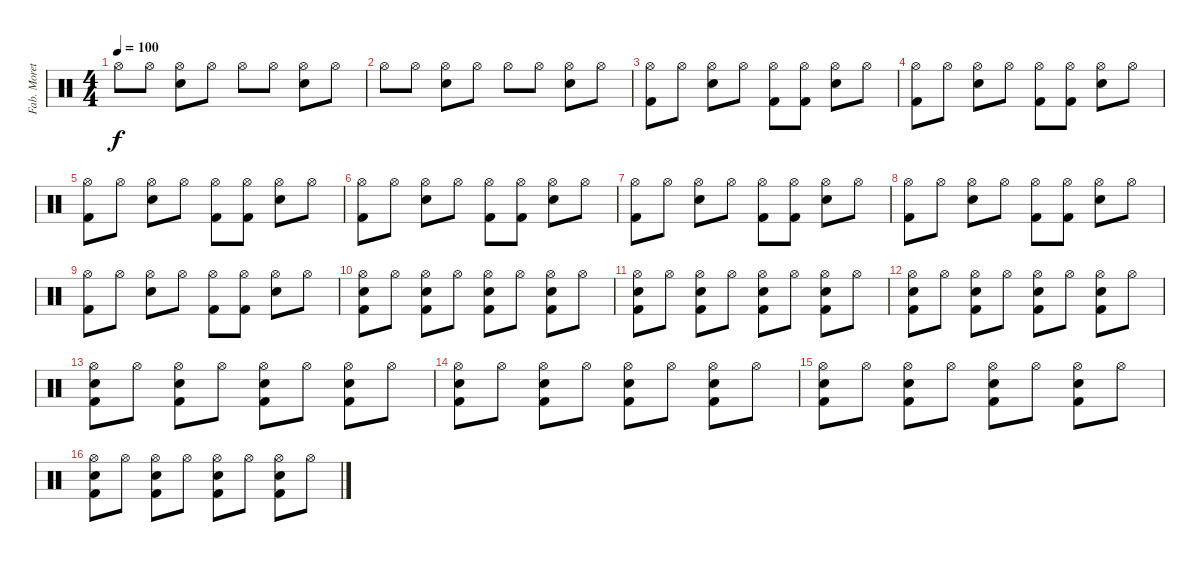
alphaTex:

\track ("Fab. Moretti" "Fab. Moret") {instrument percussion}
\staff {score}
\articulation defaults
\ts (4 4)
\tempo 100
\clef neutral
\ks c "Hi-Hat (open)".8{dy f} "Hi-Hat (open)".8
("Hi-Hat (open)" "Electric Snare (hit)").8 "Hi-Hat (open)".8 "Hi-Hat (open)".8 "Hi-Hat (open)".8 ("Hi-Hat (open)" "Electric Snare (hit)").8 "Hi-Hat (open)".8 |
"Hi-Hat (open)".8 "Hi-Hat (open)".8 ("Hi-Hat (open)" "Electric Snare (hit)").8 "Hi-Hat (open)".8 "Hi-Hat (open)".8 "Hi-Hat (open)".8 ("Hi-Hat (open)" "Electric Snare (hit)").8 "Hi-Hat (open)".8 |
("Hi-Hat (open)" "Kick (hit) 2").8 "Hi-Hat (open)".8 ("Hi-Hat (open)" "Electric Snare (hit)").8 "Hi-Hat (open)".8 ("Hi-Hat (open)" "Kick (hit) 2").8 ("Hi-Hat (open)" "Kick (hit) 2").8 ("Hi-Hat (open)" "Electric Snare (hit)").8 "Hi-Hat (open)".8 |
("Hi-Hat (open)" "Kick (hit) 2").8 "Hi-Hat (open)".8 ("Hi-Hat (open)" "Electric Snare (hit)").8 "Hi-Hat (open)".8 ("Hi-Hat (open)" "Kick (hit) 2").8 ("Hi-Hat (open)" "Kick (hit) 2").8 ("Hi-Hat (open)" "Electric Snare (hit)").8 "Hi-Hat (open)".8 |
("Hi-Hat (open)" "Kick (hit) 2").8 "Hi-Hat (open)".8 ("Hi-Hat (open)" "Electric Snare (hit)").8 "Hi-Hat (open)".8 ("Hi-Hat (open)" "Kick (hit) 2").8 ("Hi-Hat (open)" "Kick (hit) 2").8 ("Hi-Hat (open)" "Electric Snare (hit)").8 "Hi-Hat (open)".8 |
("Hi-Hat (open)" "Kick (hit) 2").8 "Hi-Hat (open)".8 ("Hi-Hat (open)" "Electric Snare (hit)").8 "Hi-Hat (open)".8 ("Hi-Hat (open)" "Kick (hit) 2").8 ("Hi-Hat (open)" "Kick (hit) 2").8 ("Hi-Hat (open)" "Electric Snare (hit)").8 "Hi-Hat (open)".8 |
("Hi-Hat (open)" "Kick (hit) 2").8 "Hi-Hat (open)".8 ("Hi-Hat (open)" "Electric Snare (hit)").8 "Hi-Hat (open)".8 ("Hi-Hat (open)" "Kick (hit) 2").8 ("Hi-Hat (open)" "Kick (hit) 2").8 ("Hi-Hat (open)" "Electric Snare (hit)").8 "Hi-Hat (open)".8 |
("Hi-Hat (open)" "Kick (hit) 2").8 "Hi-Hat (open)".8 ("Hi-Hat (open)" "Electric Snare (hit)").8 "Hi-Hat (open)".8 ("Hi-Hat (open)" "Kick (hit) 2").8 ("Hi-Hat (open)" "Kick (hit) 2").8 ("Hi-Hat (open)" "Electric Snare (hit)").8 "Hi-Hat (open)".8 |
("Hi-Hat (open)" "Kick (hit) 2").8 "Hi-Hat (open)".8 ("Hi-Hat (open)" "Electric Snare (hit)").8 "Hi-Hat (open)".8 ("Hi-Hat (open)" "Kick (hit) 2").8 ("Hi-Hat (open)" "Kick (hit) 2").8 ("Hi-Hat (open)" "Electric Snare (hit)").8 "Hi-Hat (open)".8 |
("Hi-Hat (open)" "Electric Snare (hit)" "Kick (hit) 2").8 "Hi-Hat (open)".8 ("Hi-Hat (open)" "Electric Snare (hit)" "Kick (hit) 2").8 "Hi-Hat (open)".8 ("Hi-Hat (open)" "Electric Snare (hit)" "Kick (hit) 2").8 "Hi-Hat (open)".8 ("Hi-Hat (open)" "Electric Snare (hit)" "Kick (hit) 2").8 "Hi-Hat (open)".8 |
("Hi-Hat (open)" "Electric Snare (hit)" "Kick (hit) 2").8 "Hi-Hat (open)".8 ("Hi-Hat (open)" "Electric Snare (hit)" "Kick (hit) 2").8 "Hi-Hat (open)".8 ("Hi-Hat (open)" "Electric Snare (hit)" "Kick (hit) 2").8 "Hi-Hat (open)".8 ("Hi-Hat (open)" "Electric Snare (hit)" "Kick (hit) 2").8 "Hi-Hat (open)".8 |
("Hi-Hat (open)" "Electric Snare (hit)" "Kick (hit) 2").8 "Hi-Hat (open)".8 ("Hi-Hat (open)" "Electric Snare (hit)" "Kick (hit) 2").8 "Hi-Hat (open)".8 ("Hi-Hat (open)" "Electric Snare (hit)" "Kick (hit) 2").8 "Hi-Hat (open)".8 ("Hi-Hat (open)" "Electric Snare (hit)" "Kick (hit) 2").8 "Hi-Hat (open)".8 |
("Hi-Hat (open)" "Electric Snare (hit)" "Kick (hit) 2").8 "Hi-Hat (open)".8 ("Hi-Hat (open)" "Electric Snare (hit)" "Kick (hit) 2").8 "Hi-Hat (open)".8 ("Hi-Hat (open)" "Electric Snare (hit)" "Kick (hit) 2").8 "Hi-Hat (open)".8 ("Hi-Hat (open)" "Electric Snare (hit)" "Kick (hit) 2").8 "Hi-Hat (open)".8 |
("Hi-Hat (open)" "Electric Snare (hit)" "Kick (hit) 2").8 "Hi-Hat (open)".8 ("Hi-Hat (open)" "Electric Snare (hit)" "Kick (hit) 2").8 "Hi-Hat (open)".8 ("Hi-Hat (open)" "Electric Snare (hit)" "Kick (hit) 2").8 "Hi-Hat (open)".8 ("Hi-Hat (open)" "Electric Snare (hit)" "Kick (hit) 2").8 "Hi-Hat (open)".8 |
("Hi-Hat (open)" "Electric Snare (hit)" "Kick (hit) 2").8 "Hi-Hat (open)".8 ("Hi-Hat (open)" "Electric Snare (hit)" "Kick (hit) 2").8 "Hi-Hat (open)".8 ("Hi-Hat (open)" "Electric Snare (hit)" "Kick (hit) 2").8 "Hi-Hat (open)".8 ("Hi-Hat (open)" "Electric Snare (hit)" "Kick (hit) 2").8 "Hi-Hat (open)".8 |
("Hi-Hat (open)" "Electric Snare (hit)" "Kick (hit) 2").8 "Hi-Hat (open)".8 ("Hi-Hat (open)" "Electric Snare (hit)" "Kick (hit) 2").8 "Hi-Hat (open)".8 ("Hi-Hat (open)" "Electric Snare (hit)" "Kick (hit) 2").8 "Hi-Hat (open)".8 ("Hi-Hat (open)" "Electric Snare (hit)" "Kick (hit) 2").8 "Hi-Hat (open)".8
